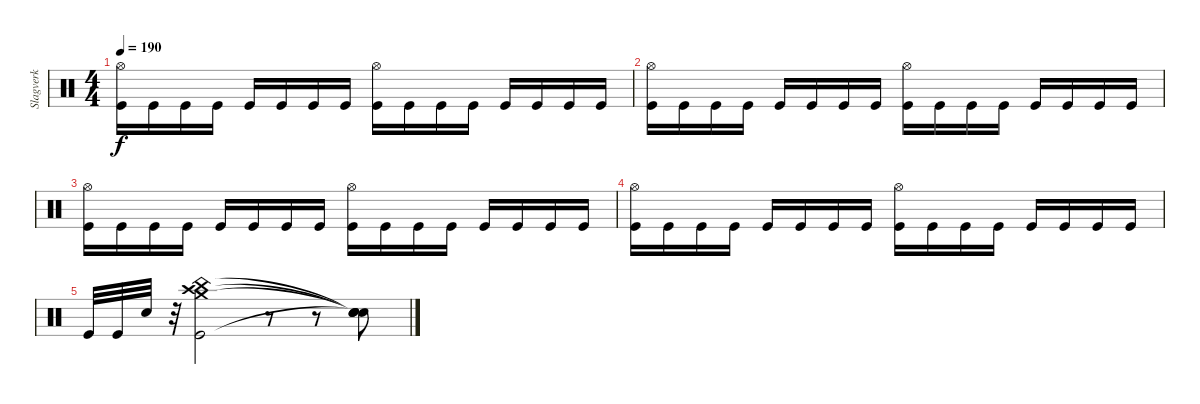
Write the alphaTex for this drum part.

\track ("Slagverk" "Slagverk") {instrument percussion}
\staff {score}
\articulation defaults
\ts (4 4)
\tempo 190
\clef neutral
\ks c
("Kick (hit)" "Hi-Hat (open)").16{dy f} "Kick (hit)".16 "Kick (hit)".16 "Kick (hit)".16 "Kick (hit)".16 "Kick (hit)".16 "Kick (hit)".16 "Kick (hit)".16 ("Kick (hit)" "Hi-Hat (open)").16 "Kick (hit)".16 "Kick (hit)".16 "Kick (hit)".16 "Kick (hit)".16 "Kick (hit)".16 "Kick (hit)".16 "Kick (hit)".16 |
("Kick (hit)" "Hi-Hat (open)").16 "Kick (hit)".16 "Kick (hit)".16 "Kick (hit)".16 "Kick (hit)".16 "Kick (hit)".16 "Kick (hit)".16 "Kick (hit)".16 ("Kick (hit)" "Hi-Hat (open)").16 "Kick (hit)".16 "Kick (hit)".16 "Kick (hit)".16 "Kick (hit)".16 "Kick (hit)".16 "Kick (hit)".16 "Kick (hit)".16 |
("Kick (hit)" "Hi-Hat (open)").16 "Kick (hit)".16 "Kick (hit)".16 "Kick (hit)".16 "Kick (hit)".16 "Kick (hit)".16 "Kick (hit)".16 "Kick (hit)".16 ("Kick (hit)" "Hi-Hat (open)").16 "Kick (hit)".16 "Kick (hit)".16 "Kick (hit)".16 "Kick (hit)".16 "Kick (hit)".16 "Kick (hit)".16 "Kick (hit)".16 |
("Kick (hit)" "Hi-Hat (open)").16 "Kick (hit)".16 "Kick (hit)".16 "Kick (hit)".16 "Kick (hit)".16 "Kick (hit)".16 "Kick (hit)".16 "Kick (hit)".16 ("Kick (hit)" "Hi-Hat (open)").16 "Kick (hit)".16 "Kick (hit)".16 "Kick (hit)".16 "Kick (hit)".16 "Kick (hit)".16 "Kick (hit)".16 "Kick (hit)".16 |
"Kick (hit)".32 "Kick (hit)".32 "Electric Snare (hit)".32 r.32 ("China (hit)" "Crash high (hit)" "Crash medium (hit)" "Kick (hit)").2 r.8 r.8 ("Snare (hit)"{t} "Snare (hit)"{t} "Snare (hit)"{t} "Snare (hit)"{t}).8
